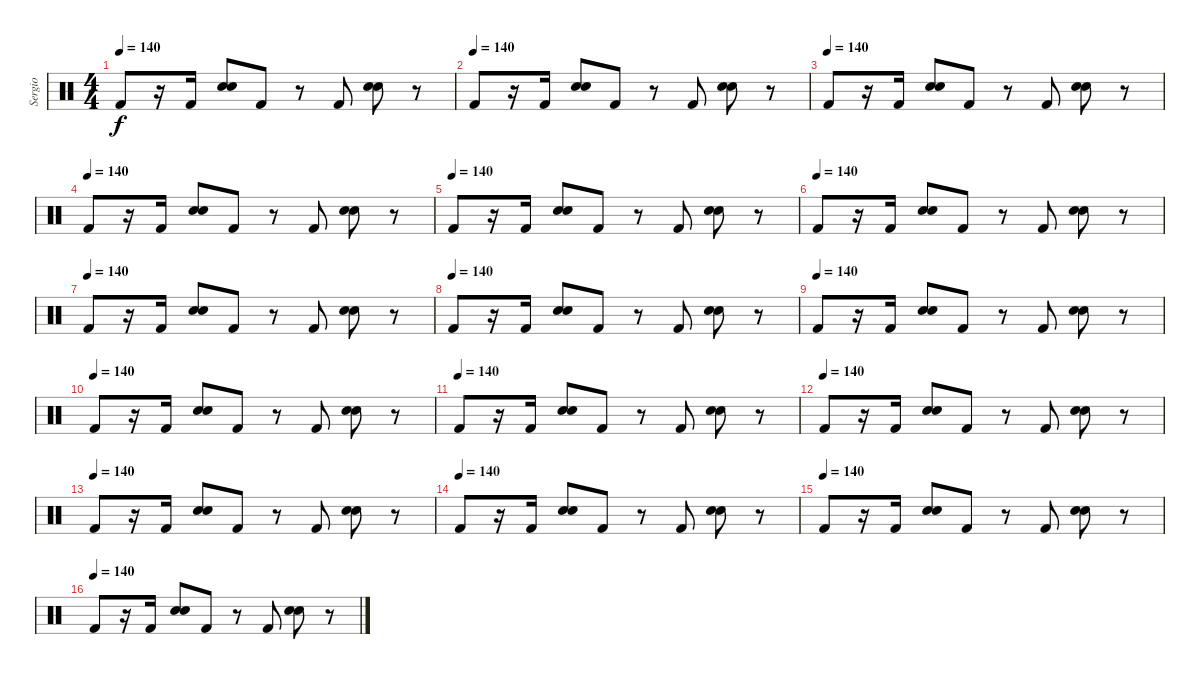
\track ("Sergio" "Sergio") {instrument percussion}
\staff {score}
\articulation defaults
\ts (4 4)
\tempo 140
\clef neutral
\ks c "Kick (hit) 2".8{dy f}
r.16 "Kick (hit) 2".16 ("Snare (hit) 2" "Snare (hit) 2").8 "Kick (hit) 2".8 r.8 "Kick (hit) 2".8 ("Snare (hit) 2" "Snare (hit) 2").8 r.8 |
\tempo (140)
"Kick (hit) 2".8 r.16 "Kick (hit) 2".16 ("Snare (hit) 2" "Snare (hit) 2").8 "Kick (hit) 2".8 r.8 "Kick (hit) 2".8 ("Snare (hit) 2" "Snare (hit) 2").8 r.8 |
\tempo (140)
"Kick (hit) 2".8 r.16 "Kick (hit) 2".16 ("Snare (hit) 2" "Snare (hit) 2").8 "Kick (hit) 2".8 r.8 "Kick (hit) 2".8 ("Snare (hit) 2" "Snare (hit) 2").8 r.8 |
\tempo (140)
"Kick (hit) 2".8 r.16 "Kick (hit) 2".16 ("Snare (hit) 2" "Snare (hit) 2").8 "Kick (hit) 2".8 r.8 "Kick (hit) 2".8 ("Snare (hit) 2" "Snare (hit) 2").8 r.8 |
\tempo (140)
"Kick (hit) 2".8 r.16 "Kick (hit) 2".16 ("Snare (hit) 2" "Snare (hit) 2").8 "Kick (hit) 2".8 r.8 "Kick (hit) 2".8 ("Snare (hit) 2" "Snare (hit) 2").8 r.8 |
\tempo (140)
"Kick (hit) 2".8 r.16 "Kick (hit) 2".16 ("Snare (hit) 2" "Snare (hit) 2").8 "Kick (hit) 2".8 r.8 "Kick (hit) 2".8 ("Snare (hit) 2" "Snare (hit) 2").8 r.8 |
\tempo (140)
"Kick (hit) 2".8 r.16 "Kick (hit) 2".16 ("Snare (hit) 2" "Snare (hit) 2").8 "Kick (hit) 2".8 r.8 "Kick (hit) 2".8 ("Snare (hit) 2" "Snare (hit) 2").8 r.8 |
\tempo (140)
"Kick (hit) 2".8 r.16 "Kick (hit) 2".16 ("Snare (hit) 2" "Snare (hit) 2").8 "Kick (hit) 2".8 r.8 "Kick (hit) 2".8 ("Snare (hit) 2" "Snare (hit) 2").8 r.8 |
\tempo (140)
"Kick (hit) 2".8 r.16 "Kick (hit) 2".16 ("Snare (hit) 2" "Snare (hit) 2").8 "Kick (hit) 2".8 r.8 "Kick (hit) 2".8 ("Snare (hit) 2" "Snare (hit) 2").8 r.8 |
\tempo (140)
"Kick (hit) 2".8 r.16 "Kick (hit) 2".16 ("Snare (hit) 2" "Snare (hit) 2").8 "Kick (hit) 2".8 r.8 "Kick (hit) 2".8 ("Snare (hit) 2" "Snare (hit) 2").8 r.8 |
\tempo (140)
"Kick (hit) 2".8 r.16 "Kick (hit) 2".16 ("Snare (hit) 2" "Snare (hit) 2").8 "Kick (hit) 2".8 r.8 "Kick (hit) 2".8 ("Snare (hit) 2" "Snare (hit) 2").8 r.8 |
\tempo (140)
"Kick (hit) 2".8 r.16 "Kick (hit) 2".16 ("Snare (hit) 2" "Snare (hit) 2").8 "Kick (hit) 2".8 r.8 "Kick (hit) 2".8 ("Snare (hit) 2" "Snare (hit) 2").8 r.8 |
\tempo (140)
"Kick (hit) 2".8 r.16 "Kick (hit) 2".16 ("Snare (hit) 2" "Snare (hit) 2").8 "Kick (hit) 2".8 r.8 "Kick (hit) 2".8 ("Snare (hit) 2" "Snare (hit) 2").8 r.8 |
\tempo (140)
"Kick (hit) 2".8 r.16 "Kick (hit) 2".16 ("Snare (hit) 2" "Snare (hit) 2").8 "Kick (hit) 2".8 r.8 "Kick (hit) 2".8 ("Snare (hit) 2" "Snare (hit) 2").8 r.8 |
\tempo (140)
"Kick (hit) 2".8 r.16 "Kick (hit) 2".16 ("Snare (hit) 2" "Snare (hit) 2").8 "Kick (hit) 2".8 r.8 "Kick (hit) 2".8 ("Snare (hit) 2" "Snare (hit) 2").8 r.8 |
\tempo (140)
"Kick (hit) 2".8 r.16 "Kick (hit) 2".16 ("Snare (hit) 2" "Snare (hit) 2").8 "Kick (hit) 2".8 r.8 "Kick (hit) 2".8 ("Snare (hit) 2" "Snare (hit) 2").8 r.8
